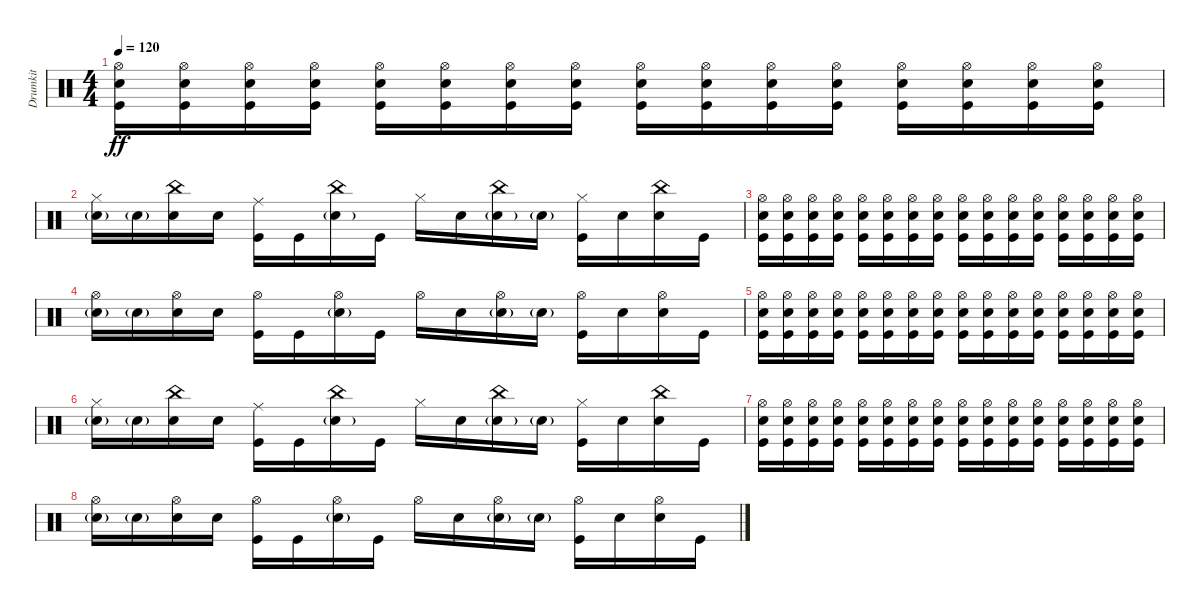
\track ("Drumkit" "Drumkit") {instrument percussion}
\staff {score}
\articulation defaults
\ts (4 4)
\tempo 120
\clef neutral
\ks c
("Hi-Hat (open)" "Snare (hit) 2" "Kick (hit)").16{dy ff} ("Snare (hit) 2" "Hi-Hat (open)" "Kick (hit)").16 ("Hi-Hat (open)" "Snare (hit) 2" "Kick (hit)").16 ("Snare (hit) 2" "Hi-Hat (open)" "Kick (hit)").16 ("Hi-Hat (open)" "Snare (hit) 2" "Kick (hit)").16 ("Snare (hit) 2" "Hi-Hat (open)" "Kick (hit)").16 ("Hi-Hat (open)" "Snare (hit) 2" "Kick (hit)").16 ("Snare (hit) 2" "Hi-Hat (open)" "Kick (hit)").16 ("Hi-Hat (open)" "Snare (hit) 2" "Kick (hit)").16 ("Snare (hit) 2" "Hi-Hat (open)" "Kick (hit)").16 ("Hi-Hat (open)" "Snare (hit) 2" "Kick (hit)").16 ("Snare (hit) 2" "Hi-Hat (open)" "Kick (hit)").16 ("Hi-Hat (open)" "Snare (hit) 2" "Kick (hit)").16 ("Snare (hit) 2" "Hi-Hat (open)" "Kick (hit)").16 ("Hi-Hat (open)" "Snare (hit) 2" "Kick (hit)").16 ("Snare (hit) 2" "Hi-Hat (open)" "Kick (hit)").16 |
("Hi-Hat (closed)" "Snare (hit) 2"{g}).16 "Snare (hit) 2"{g}.16 ("Snare (hit) 2" "China (hit)").16 "Snare (hit) 2".16 ("Ride (middle)" "Kick (hit)").16 "Kick (hit)".16 ("Snare (hit) 2"{g} "China (hit)").16 "Kick (hit)".16 "Hi-Hat (closed)".16 "Snare (hit) 2".16 ("Snare (hit) 2"{g} "China (hit)").16 "Snare (hit) 2"{g}.16 ("Kick (hit)" "Hi-Hat (closed)").16 "Snare (hit) 2".16 ("China (hit)" "Snare (hit) 2").16 "Kick (hit)".16 |
("Hi-Hat (open)" "Snare (hit) 2" "Kick (hit)").16 ("Snare (hit) 2" "Hi-Hat (open)" "Kick (hit)").16 ("Hi-Hat (open)" "Snare (hit) 2" "Kick (hit)").16 ("Snare (hit) 2" "Hi-Hat (open)" "Kick (hit)").16 ("Hi-Hat (open)" "Snare (hit) 2" "Kick (hit)").16 ("Snare (hit) 2" "Hi-Hat (open)" "Kick (hit)").16 ("Hi-Hat (open)" "Snare (hit) 2" "Kick (hit)").16 ("Snare (hit) 2" "Hi-Hat (open)" "Kick (hit)").16 ("Hi-Hat (open)" "Snare (hit) 2" "Kick (hit)").16 ("Snare (hit) 2" "Hi-Hat (open)" "Kick (hit)").16 ("Hi-Hat (open)" "Snare (hit) 2" "Kick (hit)").16 ("Snare (hit) 2" "Hi-Hat (open)" "Kick (hit)").16 ("Hi-Hat (open)" "Snare (hit) 2" "Kick (hit)").16 ("Snare (hit) 2" "Hi-Hat (open)" "Kick (hit)").16 ("Hi-Hat (open)" "Snare (hit) 2" "Kick (hit)").16 ("Snare (hit) 2" "Hi-Hat (open)" "Kick (hit)").16 |
("Hi-Hat (open)" "Snare (hit) 2"{g}).16 "Snare (hit) 2"{g}.16 ("Snare (hit) 2" "Hi-Hat (open)").16 "Snare (hit) 2".16 ("Kick (hit)" "Hi-Hat (open)").16 "Kick (hit)".16 ("Snare (hit) 2"{g} "Hi-Hat (open)").16 "Kick (hit)".16 "Hi-Hat (open)".16 "Snare (hit) 2".16 ("Snare (hit) 2"{g} "Hi-Hat (open)").16 "Snare (hit) 2"{g}.16 ("Kick (hit)" "Hi-Hat (open)").16 "Snare (hit) 2".16 ("Snare (hit) 2" "Hi-Hat (open)").16 "Kick (hit)".16 |
("Hi-Hat (open)" "Snare (hit) 2" "Kick (hit)").16 ("Snare (hit) 2" "Hi-Hat (open)" "Kick (hit)").16 ("Hi-Hat (open)" "Snare (hit) 2" "Kick (hit)").16 ("Snare (hit) 2" "Hi-Hat (open)" "Kick (hit)").16 ("Hi-Hat (open)" "Snare (hit) 2" "Kick (hit)").16 ("Snare (hit) 2" "Hi-Hat (open)" "Kick (hit)").16 ("Hi-Hat (open)" "Snare (hit) 2" "Kick (hit)").16 ("Snare (hit) 2" "Hi-Hat (open)" "Kick (hit)").16 ("Hi-Hat (open)" "Snare (hit) 2" "Kick (hit)").16 ("Snare (hit) 2" "Hi-Hat (open)" "Kick (hit)").16 ("Hi-Hat (open)" "Snare (hit) 2" "Kick (hit)").16 ("Snare (hit) 2" "Hi-Hat (open)" "Kick (hit)").16 ("Hi-Hat (open)" "Snare (hit) 2" "Kick (hit)").16 ("Snare (hit) 2" "Hi-Hat (open)" "Kick (hit)").16 ("Hi-Hat (open)" "Snare (hit) 2" "Kick (hit)").16 ("Snare (hit) 2" "Hi-Hat (open)" "Kick (hit)").16 |
("Hi-Hat (closed)" "Snare (hit) 2"{g}).16 "Snare (hit) 2"{g}.16 ("Snare (hit) 2" "China (hit)").16 "Snare (hit) 2".16 ("Ride (middle)" "Kick (hit)").16 "Kick (hit)".16 ("Snare (hit) 2"{g} "China (hit)").16 "Kick (hit)".16 "Hi-Hat (closed)".16 "Snare (hit) 2".16 ("Snare (hit) 2"{g} "China (hit)").16 "Snare (hit) 2"{g}.16 ("Kick (hit)" "Hi-Hat (closed)").16 "Snare (hit) 2".16 ("China (hit)" "Snare (hit) 2").16 "Kick (hit)".16 |
("Hi-Hat (open)" "Snare (hit) 2" "Kick (hit)").16 ("Snare (hit) 2" "Hi-Hat (open)" "Kick (hit)").16 ("Hi-Hat (open)" "Snare (hit) 2" "Kick (hit)").16 ("Snare (hit) 2" "Hi-Hat (open)" "Kick (hit)").16 ("Hi-Hat (open)" "Snare (hit) 2" "Kick (hit)").16 ("Snare (hit) 2" "Hi-Hat (open)" "Kick (hit)").16 ("Hi-Hat (open)" "Snare (hit) 2" "Kick (hit)").16 ("Snare (hit) 2" "Hi-Hat (open)" "Kick (hit)").16 ("Hi-Hat (open)" "Snare (hit) 2" "Kick (hit)").16 ("Snare (hit) 2" "Hi-Hat (open)" "Kick (hit)").16 ("Hi-Hat (open)" "Snare (hit) 2" "Kick (hit)").16 ("Snare (hit) 2" "Hi-Hat (open)" "Kick (hit)").16 ("Hi-Hat (open)" "Snare (hit) 2" "Kick (hit)").16 ("Snare (hit) 2" "Hi-Hat (open)" "Kick (hit)").16 ("Hi-Hat (open)" "Snare (hit) 2" "Kick (hit)").16 ("Snare (hit) 2" "Hi-Hat (open)" "Kick (hit)").16 |
("Hi-Hat (open)" "Snare (hit) 2"{g}).16 "Snare (hit) 2"{g}.16 ("Snare (hit) 2" "Hi-Hat (open)").16 "Snare (hit) 2".16 ("Kick (hit)" "Hi-Hat (open)").16 "Kick (hit)".16 ("Snare (hit) 2"{g} "Hi-Hat (open)").16 "Kick (hit)".16 "Hi-Hat (open)".16 "Snare (hit) 2".16 ("Snare (hit) 2"{g} "Hi-Hat (open)").16 "Snare (hit) 2"{g}.16 ("Kick (hit)" "Hi-Hat (open)").16 "Snare (hit) 2".16 ("Snare (hit) 2" "Hi-Hat (open)").16 "Kick (hit)".16
